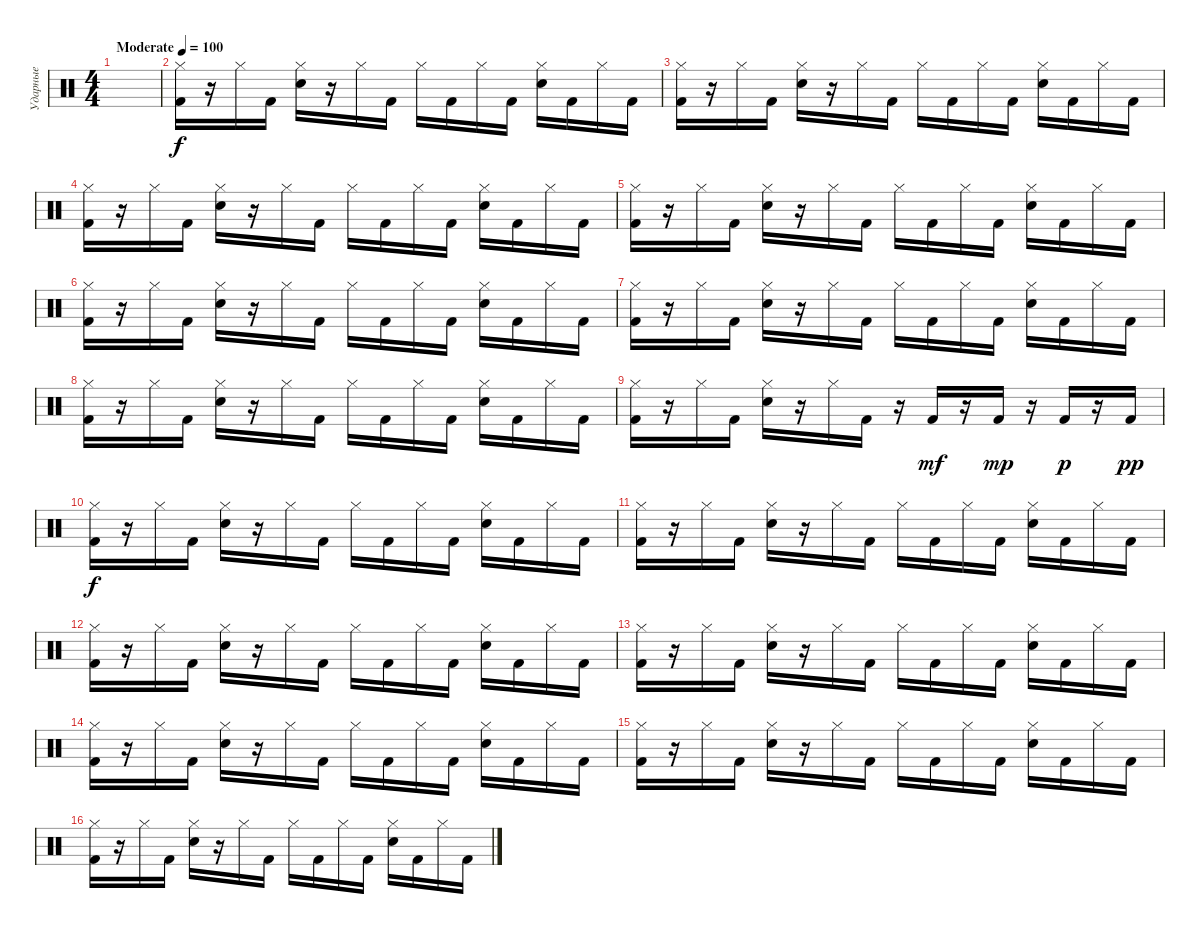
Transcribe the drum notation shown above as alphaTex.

\track ("Ударные" "Ударные") {instrument percussion}
\staff {score}
\articulation defaults
\ts (4 4)
\tempo (100 "Moderate")
\clef neutral
\ks c
|
("Hi-Hat (closed)" "Kick (hit) 2").16{volume 8} r.16 "Hi-Hat (closed)".16 "Kick (hit) 2".16 ("Hi-Hat (closed)" "Snare (hit) 2").16 r.16 "Hi-Hat (closed)".16 "Kick (hit) 2".16 "Hi-Hat (closed)".16 "Kick (hit) 2".16 "Hi-Hat (closed)".16 "Kick (hit) 2".16 ("Hi-Hat (closed)" "Snare (hit) 2").16 "Kick (hit) 2".16 "Hi-Hat (closed)".16 "Kick (hit) 2".16 |
("Hi-Hat (closed)" "Kick (hit) 2").16 r.16 "Hi-Hat (closed)".16 "Kick (hit) 2".16 ("Hi-Hat (closed)" "Snare (hit) 2").16 r.16 "Hi-Hat (closed)".16 "Kick (hit) 2".16 "Hi-Hat (closed)".16 "Kick (hit) 2".16 "Hi-Hat (closed)".16 "Kick (hit) 2".16 ("Hi-Hat (closed)" "Snare (hit) 2").16 "Kick (hit) 2".16 "Hi-Hat (closed)".16 "Kick (hit) 2".16 |
("Hi-Hat (closed)" "Kick (hit) 2").16 r.16 "Hi-Hat (closed)".16 "Kick (hit) 2".16 ("Hi-Hat (closed)" "Snare (hit) 2").16 r.16 "Hi-Hat (closed)".16 "Kick (hit) 2".16 "Hi-Hat (closed)".16 "Kick (hit) 2".16 "Hi-Hat (closed)".16 "Kick (hit) 2".16 ("Hi-Hat (closed)" "Snare (hit) 2").16 "Kick (hit) 2".16 "Hi-Hat (closed)".16 "Kick (hit) 2".16 |
("Hi-Hat (closed)" "Kick (hit) 2").16 r.16 "Hi-Hat (closed)".16 "Kick (hit) 2".16 ("Hi-Hat (closed)" "Snare (hit) 2").16 r.16 "Hi-Hat (closed)".16 "Kick (hit) 2".16 "Hi-Hat (closed)".16 "Kick (hit) 2".16 "Hi-Hat (closed)".16 "Kick (hit) 2".16 ("Hi-Hat (closed)" "Snare (hit) 2").16 "Kick (hit) 2".16 "Hi-Hat (closed)".16 "Kick (hit) 2".16 |
("Hi-Hat (closed)" "Kick (hit) 2").16{volume 11} r.16 "Hi-Hat (closed)".16 "Kick (hit) 2".16 ("Hi-Hat (closed)" "Snare (hit) 2").16 r.16 "Hi-Hat (closed)".16 "Kick (hit) 2".16 "Hi-Hat (closed)".16 "Kick (hit) 2".16 "Hi-Hat (closed)".16 "Kick (hit) 2".16 ("Hi-Hat (closed)" "Snare (hit) 2").16 "Kick (hit) 2".16 "Hi-Hat (closed)".16 "Kick (hit) 2".16 |
("Hi-Hat (closed)" "Kick (hit) 2").16 r.16 "Hi-Hat (closed)".16 "Kick (hit) 2".16 ("Hi-Hat (closed)" "Snare (hit) 2").16 r.16 "Hi-Hat (closed)".16 "Kick (hit) 2".16 "Hi-Hat (closed)".16 "Kick (hit) 2".16 "Hi-Hat (closed)".16 "Kick (hit) 2".16 ("Hi-Hat (closed)" "Snare (hit) 2").16 "Kick (hit) 2".16 "Hi-Hat (closed)".16 "Kick (hit) 2".16 |
("Hi-Hat (closed)" "Kick (hit) 2").16{volume 13} r.16 "Hi-Hat (closed)".16 "Kick (hit) 2".16 ("Hi-Hat (closed)" "Snare (hit) 2").16 r.16 "Hi-Hat (closed)".16 "Kick (hit) 2".16 "Hi-Hat (closed)".16 "Kick (hit) 2".16 "Hi-Hat (closed)".16 "Kick (hit) 2".16 ("Hi-Hat (closed)" "Snare (hit) 2").16 "Kick (hit) 2".16 "Hi-Hat (closed)".16 "Kick (hit) 2".16 |
("Hi-Hat (closed)" "Kick (hit) 2").16 r.16 "Hi-Hat (closed)".16 "Kick (hit) 2".16 ("Hi-Hat (closed)" "Snare (hit) 2").16 r.16 "Hi-Hat (closed)".16 "Kick (hit) 2".16 r.16 "Kick (hit) 2".16{dy mf} r.16 "Kick (hit) 2".16{dy mp} r.16 "Kick (hit) 2".16{dy p} r.16 "Kick (hit) 2".16{dy pp} |
("Hi-Hat (closed)" "Kick (hit) 2").16{dy f} r.16 "Hi-Hat (closed)".16 "Kick (hit) 2".16 ("Hi-Hat (closed)" "Snare (hit) 2").16 r.16 "Hi-Hat (closed)".16 "Kick (hit) 2".16 "Hi-Hat (closed)".16 "Kick (hit) 2".16 "Hi-Hat (closed)".16 "Kick (hit) 2".16 ("Hi-Hat (closed)" "Snare (hit) 2").16 "Kick (hit) 2".16 "Hi-Hat (closed)".16 "Kick (hit) 2".16 |
("Hi-Hat (closed)" "Kick (hit) 2").16 r.16 "Hi-Hat (closed)".16 "Kick (hit) 2".16 ("Hi-Hat (closed)" "Snare (hit) 2").16 r.16 "Hi-Hat (closed)".16 "Kick (hit) 2".16 "Hi-Hat (closed)".16 "Kick (hit) 2".16 "Hi-Hat (closed)".16 "Kick (hit) 2".16 ("Hi-Hat (closed)" "Snare (hit) 2").16 "Kick (hit) 2".16 "Hi-Hat (closed)".16 "Kick (hit) 2".16 |
("Hi-Hat (closed)" "Kick (hit) 2").16 r.16 "Hi-Hat (closed)".16 "Kick (hit) 2".16 ("Hi-Hat (closed)" "Snare (hit) 2").16 r.16 "Hi-Hat (closed)".16 "Kick (hit) 2".16 "Hi-Hat (closed)".16 "Kick (hit) 2".16 "Hi-Hat (closed)".16 "Kick (hit) 2".16 ("Hi-Hat (closed)" "Snare (hit) 2").16 "Kick (hit) 2".16 "Hi-Hat (closed)".16 "Kick (hit) 2".16 |
("Hi-Hat (closed)" "Kick (hit) 2").16 r.16 "Hi-Hat (closed)".16 "Kick (hit) 2".16 ("Hi-Hat (closed)" "Snare (hit) 2").16 r.16 "Hi-Hat (closed)".16 "Kick (hit) 2".16 "Hi-Hat (closed)".16 "Kick (hit) 2".16 "Hi-Hat (closed)".16 "Kick (hit) 2".16 ("Hi-Hat (closed)" "Snare (hit) 2").16 "Kick (hit) 2".16 "Hi-Hat (closed)".16 "Kick (hit) 2".16 |
("Hi-Hat (closed)" "Kick (hit) 2").16 r.16 "Hi-Hat (closed)".16 "Kick (hit) 2".16 ("Hi-Hat (closed)" "Snare (hit) 2").16 r.16 "Hi-Hat (closed)".16 "Kick (hit) 2".16 "Hi-Hat (closed)".16 "Kick (hit) 2".16 "Hi-Hat (closed)".16 "Kick (hit) 2".16 ("Hi-Hat (closed)" "Snare (hit) 2").16 "Kick (hit) 2".16 "Hi-Hat (closed)".16 "Kick (hit) 2".16 |
("Hi-Hat (closed)" "Kick (hit) 2").16 r.16 "Hi-Hat (closed)".16 "Kick (hit) 2".16 ("Hi-Hat (closed)" "Snare (hit) 2").16 r.16 "Hi-Hat (closed)".16 "Kick (hit) 2".16 "Hi-Hat (closed)".16 "Kick (hit) 2".16 "Hi-Hat (closed)".16 "Kick (hit) 2".16 ("Hi-Hat (closed)" "Snare (hit) 2").16 "Kick (hit) 2".16 "Hi-Hat (closed)".16 "Kick (hit) 2".16 |
("Hi-Hat (closed)" "Kick (hit) 2").16 r.16 "Hi-Hat (closed)".16 "Kick (hit) 2".16 ("Hi-Hat (closed)" "Snare (hit) 2").16 r.16 "Hi-Hat (closed)".16 "Kick (hit) 2".16 "Hi-Hat (closed)".16 "Kick (hit) 2".16 "Hi-Hat (closed)".16 "Kick (hit) 2".16 ("Hi-Hat (closed)" "Snare (hit) 2").16 "Kick (hit) 2".16 "Hi-Hat (closed)".16 "Kick (hit) 2".16
